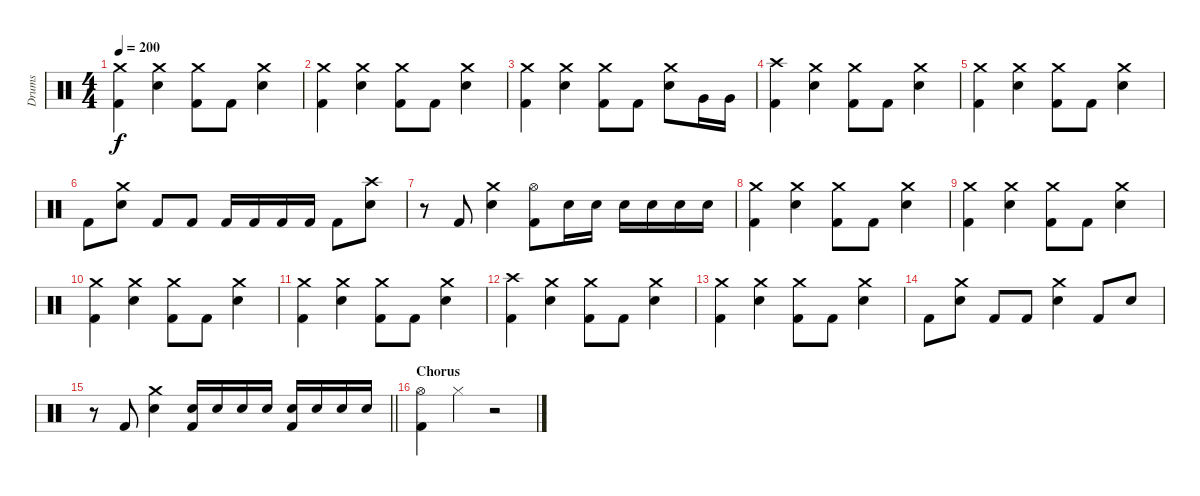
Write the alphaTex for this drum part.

\track ("Drums" "Drums") {instrument percussion}
\staff {score}
\articulation defaults
\ts (4 4)
\tempo 200
\clef neutral
\ks c
("Crash medium (hit)" "Kick (hit) 2").4{dy f} ("Crash medium (hit)" "Snare (hit) 2").4 ("Crash medium (hit)" "Kick (hit) 2").8 "Kick (hit) 2".8 ("Crash medium (hit)" "Snare (hit) 2").4 |
("Crash medium (hit)" "Kick (hit) 2").4 ("Crash medium (hit)" "Snare (hit) 2").4 ("Crash medium (hit)" "Kick (hit) 2").8 "Kick (hit) 2".8 ("Crash medium (hit)" "Snare (hit) 2").4 |
("Crash medium (hit)" "Kick (hit) 2").4 ("Crash medium (hit)" "Snare (hit) 2").4 ("Crash medium (hit)" "Kick (hit) 2").8 "Kick (hit) 2".8 ("Crash medium (hit)" "Snare (hit) 2").8 "Very Low Tom (hit)".16 "Very Low Tom (hit)".16 |
("Crash high (hit)" "Kick (hit) 2").4 ("Crash medium (hit)" "Snare (hit) 2").4 ("Crash medium (hit)" "Kick (hit) 2").8 "Kick (hit) 2".8 ("Crash medium (hit)" "Snare (hit) 2").4 |
("Crash medium (hit)" "Kick (hit) 2").4 ("Crash medium (hit)" "Snare (hit) 2").4 ("Crash medium (hit)" "Kick (hit) 2").8 "Kick (hit) 2".8 ("Crash medium (hit)" "Snare (hit) 2").4 |
"Kick (hit) 2".8 ("Crash medium (hit)" "Snare (hit) 2").8 "Kick (hit) 2".8 "Kick (hit) 2".8 "Kick (hit) 2".16 "Kick (hit) 2".16 "Kick (hit) 2".16 "Kick (hit) 2".16 "Kick (hit) 2".8 ("Crash high (hit)" "Snare (hit) 2").8 |
r.8 "Kick (hit) 2".8 ("Crash medium (hit)" "Snare (hit) 2").4 ("Hi-Hat (open)" "Kick (hit) 2").8 "Snare (hit) 2".16 "Snare (hit) 2".16 "Snare (hit) 2".16 "Snare (hit) 2".16 "Snare (hit) 2".16 "Snare (hit) 2".16 |
("Crash medium (hit)" "Kick (hit) 2").4 ("Crash medium (hit)" "Snare (hit) 2").4 ("Crash medium (hit)" "Kick (hit) 2").8 "Kick (hit) 2".8 ("Crash medium (hit)" "Snare (hit) 2").4 |
("Crash medium (hit)" "Kick (hit) 2").4 ("Crash medium (hit)" "Snare (hit) 2").4 ("Crash medium (hit)" "Kick (hit) 2").8 "Kick (hit) 2".8 ("Crash medium (hit)" "Snare (hit) 2").4 |
("Crash medium (hit)" "Kick (hit) 2").4 ("Crash medium (hit)" "Snare (hit) 2").4 ("Crash medium (hit)" "Kick (hit) 2").8 "Kick (hit) 2".8 ("Crash medium (hit)" "Snare (hit) 2").4 |
("Crash medium (hit)" "Kick (hit) 2").4 ("Crash medium (hit)" "Snare (hit) 2").4 ("Crash medium (hit)" "Kick (hit) 2").8 "Kick (hit) 2".8 ("Crash medium (hit)" "Snare (hit) 2").4 |
("Crash high (hit)" "Kick (hit) 2").4 ("Crash medium (hit)" "Snare (hit) 2").4 ("Crash medium (hit)" "Kick (hit) 2").8 "Kick (hit) 2".8 ("Crash medium (hit)" "Snare (hit) 2").4 |
("Crash medium (hit)" "Kick (hit) 2").4 ("Crash medium (hit)" "Snare (hit) 2").4 ("Crash medium (hit)" "Kick (hit) 2").8 "Kick (hit) 2".8 ("Crash medium (hit)" "Snare (hit) 2").4 |
"Kick (hit) 2".8 ("Crash medium (hit)" "Snare (hit) 2").8 "Kick (hit) 2".8 "Kick (hit) 2".8 ("Crash medium (hit)" "Snare (hit) 2").4 "Kick (hit) 2".8 "Snare (hit) 2".8 |
\barLineRight lightlight
r.8 "Kick (hit) 2".8 ("Crash medium (hit)" "Snare (hit) 2").4 ("Snare (hit) 2" "Kick (hit) 2").16 "Snare (hit) 2".16 "Snare (hit) 2".16 "Snare (hit) 2".16 ("Snare (hit) 2" "Kick (hit) 2").16 "Snare (hit) 2".16 "Snare (hit) 2".16 "Snare (hit) 2".16 |
\section ("" "Chorus")
("Hi-Hat (open)" "Kick (hit) 2").4 "Hi-Hat (closed)".4 r.2
